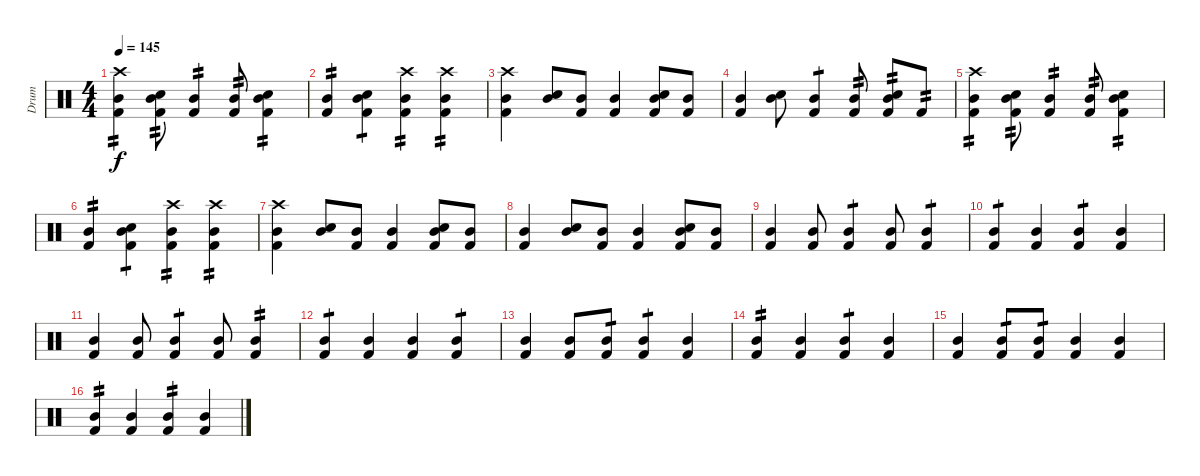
\track ("Drum" "Drum") {instrument percussion}
\staff {score}
\articulation defaults
\ts (4 4)
\tempo 145
\clef neutral
\ks c
("Mid Tom (hit)" "Kick (hit) 2" "Crash high (hit)").4{tp 2 dy f} ("Mid Tom (hit)" "Kick (hit) 2" "Snare (hit) 2").8{tp 2} ("Mid Tom (hit)" "Kick (hit) 2").4{tp 2} ("Mid Tom (hit)" "Kick (hit) 2").8{tp 2} ("Mid Tom (hit)" "Snare (hit) 2" "Kick (hit) 2").4{tp 2} |
("Mid Tom (hit)" "Kick (hit) 2").4{tp 2} ("Mid Tom (hit)" "Kick (hit) 2" "Snare (hit) 2").4{tp 1} ("Mid Tom (hit)" "Kick (hit) 2" "Crash high (hit)").4{tp 2} ("Mid Tom (hit)" "Kick (hit) 2" "Crash high (hit)").4{tp 2} |
("Mid Tom (hit)" "Kick (hit) 2" "Crash high (hit)").4 ("Mid Tom (hit)" "Snare (hit) 2").8 ("Mid Tom (hit)" "Kick (hit) 2").8 ("Mid Tom (hit)" "Kick (hit) 2").4 ("Mid Tom (hit)" "Kick (hit) 2" "Snare (hit) 2").8 ("Mid Tom (hit)" "Kick (hit) 2").8 |
("Mid Tom (hit)" "Kick (hit) 2").4 ("Mid Tom (hit)" "Snare (hit) 2").8 ("Mid Tom (hit)" "Kick (hit) 2").4{tp 1} ("Mid Tom (hit)" "Kick (hit) 2").8{tp 2} ("Mid Tom (hit)" "Snare (hit) 2" "Kick (hit) 2").8{tp 2} "Kick (hit) 2".8{tp 2} |
("Mid Tom (hit)" "Kick (hit) 2" "Crash high (hit)").4{tp 2} ("Mid Tom (hit)" "Kick (hit) 2" "Snare (hit) 2").8{tp 2} ("Mid Tom (hit)" "Kick (hit) 2").4{tp 2} ("Mid Tom (hit)" "Kick (hit) 2").8{tp 2} ("Mid Tom (hit)" "Snare (hit) 2" "Kick (hit) 2").4{tp 2} |
("Mid Tom (hit)" "Kick (hit) 2").4{tp 2} ("Mid Tom (hit)" "Kick (hit) 2" "Snare (hit) 2").4{tp 1} ("Mid Tom (hit)" "Kick (hit) 2" "Crash high (hit)").4{tp 2} ("Mid Tom (hit)" "Kick (hit) 2" "Crash high (hit)").4{tp 2} |
("Mid Tom (hit)" "Kick (hit) 2" "Crash high (hit)").4 ("Mid Tom (hit)" "Snare (hit) 2").8 ("Mid Tom (hit)" "Kick (hit) 2").8 ("Mid Tom (hit)" "Kick (hit) 2").4 ("Mid Tom (hit)" "Kick (hit) 2" "Snare (hit) 2").8 ("Mid Tom (hit)" "Kick (hit) 2").8 |
("Mid Tom (hit)" "Kick (hit) 2").4 ("Mid Tom (hit)" "Snare (hit) 2").8 ("Mid Tom (hit)" "Kick (hit) 2").8 ("Mid Tom (hit)" "Kick (hit) 2").4 ("Mid Tom (hit)" "Kick (hit) 2" "Snare (hit) 2").8 ("Mid Tom (hit)" "Kick (hit) 2").8 |
("Mid Tom (hit)" "Kick (hit) 2").4 ("Mid Tom (hit)" "Kick (hit) 2").8 ("Mid Tom (hit)" "Kick (hit) 2").4{tp 1} ("Mid Tom (hit)" "Kick (hit) 2").8 ("Mid Tom (hit)" "Kick (hit) 2").4{tp 1} |
("Mid Tom (hit)" "Kick (hit) 2").4{tp 1} ("Mid Tom (hit)" "Kick (hit) 2").4 ("Mid Tom (hit)" "Kick (hit) 2").4{tp 1} ("Mid Tom (hit)" "Kick (hit) 2").4 |
("Mid Tom (hit)" "Kick (hit) 2").4 ("Mid Tom (hit)" "Kick (hit) 2").8 ("Mid Tom (hit)" "Kick (hit) 2").4{tp 1} ("Mid Tom (hit)" "Kick (hit) 2").8 ("Mid Tom (hit)" "Kick (hit) 2").4{tp 2} |
("Mid Tom (hit)" "Kick (hit) 2").4{tp 1} ("Mid Tom (hit)" "Kick (hit) 2").4 ("Mid Tom (hit)" "Kick (hit) 2").4 ("Mid Tom (hit)" "Kick (hit) 2").4{tp 1} |
("Mid Tom (hit)" "Kick (hit) 2").4 ("Mid Tom (hit)" "Kick (hit) 2").8 ("Mid Tom (hit)" "Kick (hit) 2").8{tp 1} ("Mid Tom (hit)" "Kick (hit) 2").4{tp 1} ("Mid Tom (hit)" "Kick (hit) 2").4 |
("Mid Tom (hit)" "Kick (hit) 2").4{tp 2} ("Mid Tom (hit)" "Kick (hit) 2").4 ("Mid Tom (hit)" "Kick (hit) 2").4{tp 1} ("Mid Tom (hit)" "Kick (hit) 2").4 |
("Mid Tom (hit)" "Kick (hit) 2").4 ("Mid Tom (hit)" "Kick (hit) 2").8{tp 1} ("Mid Tom (hit)" "Kick (hit) 2").8{tp 1} ("Mid Tom (hit)" "Kick (hit) 2").4 ("Mid Tom (hit)" "Kick (hit) 2").4 |
("Mid Tom (hit)" "Kick (hit) 2").4{tp 2} ("Mid Tom (hit)" "Kick (hit) 2").4 ("Mid Tom (hit)" "Kick (hit) 2").4{tp 2} ("Mid Tom (hit)" "Kick (hit) 2").4
